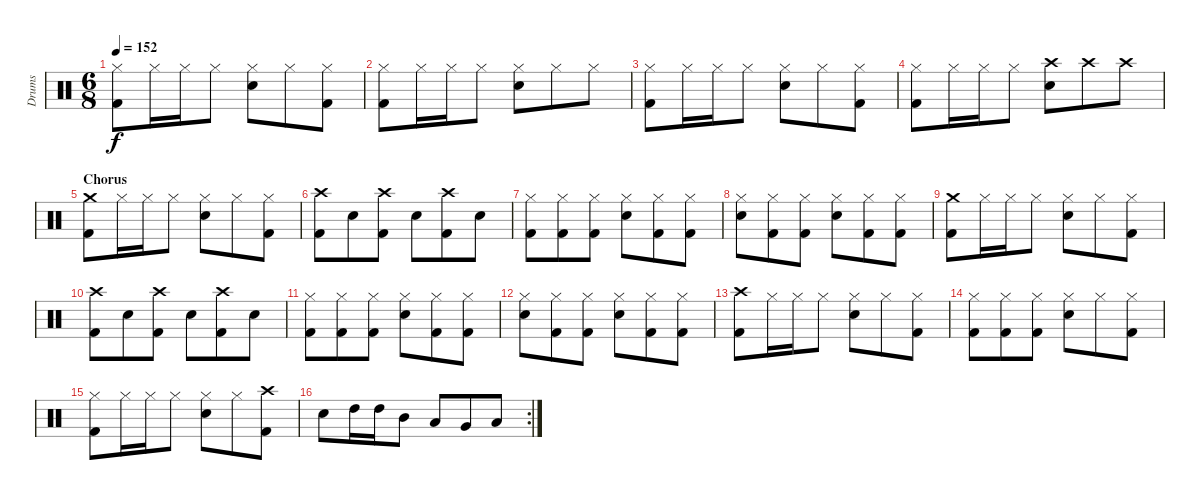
\track ("Drums" "Drums") {instrument percussion}
\staff {score}
\articulation defaults
\ts (6 8)
\tempo 152
\clef neutral
\ks c
("Hi-Hat (closed)" "Kick (hit) 2").8{dy f} "Hi-Hat (closed)".16 "Hi-Hat (closed)".16 "Hi-Hat (closed)".8 ("Electric Snare (hit)" "Hi-Hat (closed)").8 "Hi-Hat (closed)".8 ("Hi-Hat (closed)" "Kick (hit) 2").8 |
("Hi-Hat (closed)" "Kick (hit) 2").8 "Hi-Hat (closed)".16 "Hi-Hat (closed)".16 "Hi-Hat (closed)".8 ("Electric Snare (hit)" "Hi-Hat (closed)").8 "Hi-Hat (closed)".8 "Hi-Hat (closed)".8 |
("Hi-Hat (closed)" "Kick (hit) 2").8 "Hi-Hat (closed)".16 "Hi-Hat (closed)".16 "Hi-Hat (closed)".8 ("Electric Snare (hit)" "Hi-Hat (closed)").8 "Hi-Hat (closed)".8 ("Hi-Hat (closed)" "Kick (hit) 2").8 |
("Hi-Hat (closed)" "Kick (hit) 2").8 "Hi-Hat (closed)".16 "Hi-Hat (closed)".16 "Hi-Hat (closed)".8 ("Electric Snare (hit)" "Crash high (hit)").8 "Crash high (hit)".8 "Crash high (hit)".8 |
\section ("" "Chorus")
("Crash medium (hit)" "Kick (hit) 2").8 "Hi-Hat (closed)".16 "Hi-Hat (closed)".16 "Hi-Hat (closed)".8 ("Electric Snare (hit)" "Hi-Hat (closed)").8 "Hi-Hat (closed)".8 ("Hi-Hat (closed)" "Kick (hit) 2").8 |
("Crash high (hit)" "Kick (hit) 2").8 "Electric Snare (hit)".8 ("Crash high (hit)" "Kick (hit) 2").8 "Electric Snare (hit)".8 ("Crash high (hit)" "Kick (hit) 2").8 "Electric Snare (hit)".8 |
("Hi-Hat (closed)" "Kick (hit) 2").8 ("Hi-Hat (closed)" "Kick (hit) 2").8 ("Hi-Hat (closed)" "Kick (hit) 2").8 ("Electric Snare (hit)" "Hi-Hat (closed)").8 ("Hi-Hat (closed)" "Kick (hit) 2").8 ("Hi-Hat (closed)" "Kick (hit) 2").8 |
("Electric Snare (hit)" "Hi-Hat (closed)").8 ("Hi-Hat (closed)" "Kick (hit) 2").8 ("Hi-Hat (closed)" "Kick (hit) 2").8 ("Electric Snare (hit)" "Hi-Hat (closed)").8 ("Hi-Hat (closed)" "Kick (hit) 2").8 ("Hi-Hat (closed)" "Kick (hit) 2").8 |
("Crash medium (hit)" "Kick (hit) 2").8 "Hi-Hat (closed)".16 "Hi-Hat (closed)".16 "Hi-Hat (closed)".8 ("Electric Snare (hit)" "Hi-Hat (closed)").8 "Hi-Hat (closed)".8 ("Hi-Hat (closed)" "Kick (hit) 2").8 |
("Crash high (hit)" "Kick (hit) 2").8 "Electric Snare (hit)".8 ("Crash high (hit)" "Kick (hit) 2").8 "Electric Snare (hit)".8 ("Crash high (hit)" "Kick (hit) 2").8 "Electric Snare (hit)".8 |
("Hi-Hat (closed)" "Kick (hit) 2").8 ("Hi-Hat (closed)" "Kick (hit) 2").8 ("Hi-Hat (closed)" "Kick (hit) 2").8 ("Electric Snare (hit)" "Hi-Hat (closed)").8 ("Hi-Hat (closed)" "Kick (hit) 2").8 ("Hi-Hat (closed)" "Kick (hit) 2").8 |
("Electric Snare (hit)" "Hi-Hat (closed)").8 ("Hi-Hat (closed)" "Kick (hit) 2").8 ("Hi-Hat (closed)" "Kick (hit) 2").8 ("Electric Snare (hit)" "Hi-Hat (closed)").8 ("Hi-Hat (closed)" "Kick (hit) 2").8 ("Hi-Hat (closed)" "Kick (hit) 2").8 |
("Crash high (hit)" "Kick (hit) 2").8 "Hi-Hat (closed)".16 "Hi-Hat (closed)".16 "Hi-Hat (closed)".8 ("Electric Snare (hit)" "Hi-Hat (closed)").8 "Hi-Hat (closed)".8 ("Hi-Hat (closed)" "Kick (hit) 2").8 |
("Hi-Hat (closed)" "Kick (hit) 2").8 ("Hi-Hat (closed)" "Kick (hit) 2").8 ("Hi-Hat (closed)" "Kick (hit) 2").8 ("Electric Snare (hit)" "Hi-Hat (closed)").8 "Hi-Hat (closed)".8 ("Hi-Hat (closed)" "Kick (hit) 2").8 |
("Hi-Hat (closed)" "Kick (hit) 2").8 "Hi-Hat (closed)".16 "Hi-Hat (closed)".16 "Hi-Hat (closed)".8 ("Electric Snare (hit)" "Hi-Hat (closed)").8 "Hi-Hat (closed)".8 ("Crash high (hit)" "Kick (hit) 2").8 |
\rc 2 "Electric Snare (hit)".8 "High Tom (hit)".16 "High Tom (hit)".16 "Mid Tom (hit)".8 "Low Tom (hit)".8 "Very Low Tom (hit)".8 "Low Floor Tom (hit)".8
